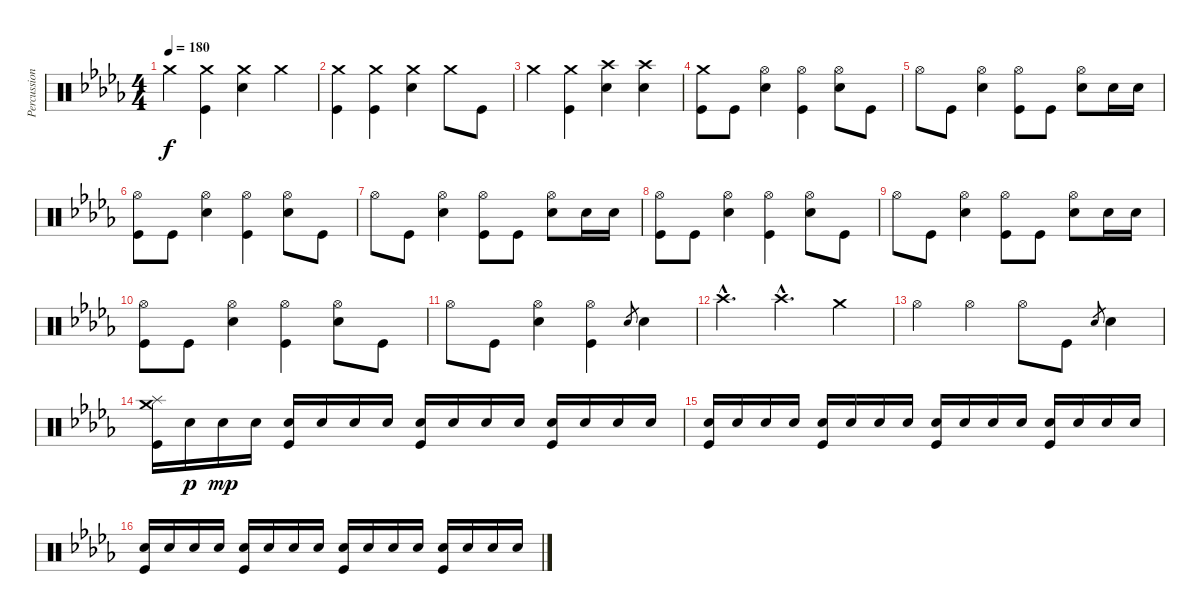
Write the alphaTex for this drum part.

\track ("Percussion" "Percussion") {instrument percussion}
\staff {score}
\articulation defaults
\ts (4 4)
\tempo 180
\clef neutral
\ks db "Crash medium (hit)".4{dy f}
("Crash medium (hit)" "Kick (hit)").4 ("Crash medium (hit)" "Electric Snare (hit)").4 "Crash medium (hit)".4 |
("Crash medium (hit)" "Kick (hit)").4 ("Crash medium (hit)" "Kick (hit)").4 ("Crash medium (hit)" "Electric Snare (hit)").4 "Crash medium (hit)".8 "Kick (hit)".8 |
"Crash medium (hit)".4 ("Crash medium (hit)" "Kick (hit)").4 ("Crash high (hit)" "Electric Snare (hit)").4 ("Crash high (hit)" "Electric Snare (hit)").4 |
("Crash medium (hit)" "Kick (hit)").8 "Kick (hit)".8 ("Hi-Hat (open)" "Electric Snare (hit)").4 ("Hi-Hat (open)" "Kick (hit)").4 ("Hi-Hat (open)" "Electric Snare (hit)").8 "Kick (hit)".8 |
"Hi-Hat (open)".8 "Kick (hit)".8 ("Hi-Hat (open)" "Electric Snare (hit)").4 ("Hi-Hat (open)" "Kick (hit)").8 "Kick (hit)".8 ("Hi-Hat (open)" "Electric Snare (hit)").8 "Electric Snare (hit)".16 "Electric Snare (hit)".16 |
("Hi-Hat (open)" "Kick (hit)").8 "Kick (hit)".8 ("Hi-Hat (open)" "Electric Snare (hit)").4 ("Hi-Hat (open)" "Kick (hit)").4 ("Hi-Hat (open)" "Electric Snare (hit)").8 "Kick (hit)".8 |
"Hi-Hat (open)".8 "Kick (hit)".8 ("Hi-Hat (open)" "Electric Snare (hit)").4 ("Hi-Hat (open)" "Kick (hit)").8 "Kick (hit)".8 ("Hi-Hat (open)" "Electric Snare (hit)").8 "Electric Snare (hit)".16 "Electric Snare (hit)".16 |
("Hi-Hat (open)" "Kick (hit)").8 "Kick (hit)".8 ("Hi-Hat (open)" "Electric Snare (hit)").4 ("Hi-Hat (open)" "Kick (hit)").4 ("Hi-Hat (open)" "Electric Snare (hit)").8 "Kick (hit)".8 |
"Hi-Hat (open)".8 "Kick (hit)".8 ("Hi-Hat (open)" "Electric Snare (hit)").4 ("Hi-Hat (open)" "Kick (hit)").8 "Kick (hit)".8 ("Hi-Hat (open)" "Electric Snare (hit)").8 "Electric Snare (hit)".16 "Electric Snare (hit)".16 |
("Hi-Hat (open)" "Kick (hit)").8 "Kick (hit)".8 ("Hi-Hat (open)" "Electric Snare (hit)").4 ("Hi-Hat (open)" "Kick (hit)").4 ("Hi-Hat (open)" "Electric Snare (hit)").8 "Kick (hit)".8 |
"Hi-Hat (open)".8 "Kick (hit)".8 ("Hi-Hat (open)" "Electric Snare (hit)").4 ("Hi-Hat (open)" "Kick (hit)").4 "Electric Snare (hit)".8{gr} "Electric Snare (hit)".4 |
"Crash high (hit)"{hac}.4{d} "Crash high (hit)"{hac}.4{d} "Crash medium (hit)".4 |
"Hi-Hat (open)".4 "Hi-Hat (open)".4 "Hi-Hat (open)".8 "Kick (hit)".8 "Electric Snare (hit)".8{gr} "Electric Snare (hit)".4 |
("Crash medium (hit)" "Splash (hit)" "Kick (hit)").16 "Electric Snare (hit)".16{dy p} "Electric Snare (hit)".16{dy mp} "Electric Snare (hit)".16 ("Electric Snare (hit)" "Kick (hit)").16 "Electric Snare (hit)".16 "Electric Snare (hit)".16 "Electric Snare (hit)".16 ("Electric Snare (hit)" "Kick (hit)").16 "Electric Snare (hit)".16 "Electric Snare (hit)".16 "Electric Snare (hit)".16 ("Electric Snare (hit)" "Kick (hit)").16 "Electric Snare (hit)".16 "Electric Snare (hit)".16 "Electric Snare (hit)".16 |
("Electric Snare (hit)" "Kick (hit)").16 "Electric Snare (hit)".16 "Electric Snare (hit)".16 "Electric Snare (hit)".16 ("Electric Snare (hit)" "Kick (hit)").16 "Electric Snare (hit)".16 "Electric Snare (hit)".16 "Electric Snare (hit)".16 ("Electric Snare (hit)" "Kick (hit)").16 "Electric Snare (hit)".16 "Electric Snare (hit)".16 "Electric Snare (hit)".16 ("Electric Snare (hit)" "Kick (hit)").16 "Electric Snare (hit)".16 "Electric Snare (hit)".16 "Electric Snare (hit)".16 |
("Electric Snare (hit)" "Kick (hit)").16 "Electric Snare (hit)".16 "Electric Snare (hit)".16 "Electric Snare (hit)".16 ("Electric Snare (hit)" "Kick (hit)").16 "Electric Snare (hit)".16 "Electric Snare (hit)".16 "Electric Snare (hit)".16 ("Electric Snare (hit)" "Kick (hit)").16 "Electric Snare (hit)".16 "Electric Snare (hit)".16 "Electric Snare (hit)".16 ("Electric Snare (hit)" "Kick (hit)").16 "Electric Snare (hit)".16 "Electric Snare (hit)".16 "Electric Snare (hit)".16
